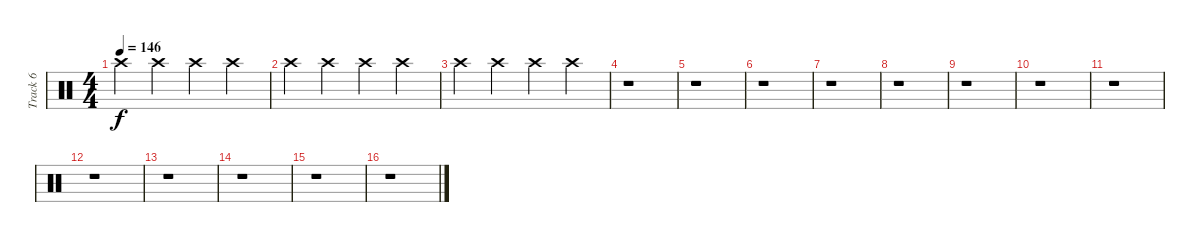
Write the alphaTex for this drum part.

\track ("Track 6" "Track 6") {instrument percussion}
\staff {score}
\articulation defaults
\ts (4 4)
\tempo 146
\clef neutral
\ks c "Crash high (hit)".4{dy f} "Crash high (hit)".4 "Crash high (hit)".4 "Crash high (hit)".4
|
"Crash high (hit)".4 "Crash high (hit)".4 "Crash high (hit)".4 "Crash high (hit)".4 |
"Crash high (hit)".4 "Crash high (hit)".4 "Crash high (hit)".4 "Crash high (hit)".4 |
r.1 |
r.1 |
r.1 |
r.1 |
r.1 |
r.1 |
r.1 |
r.1 |
r.1 |
r.1 |
r.1 |
r.1 |
r.1
